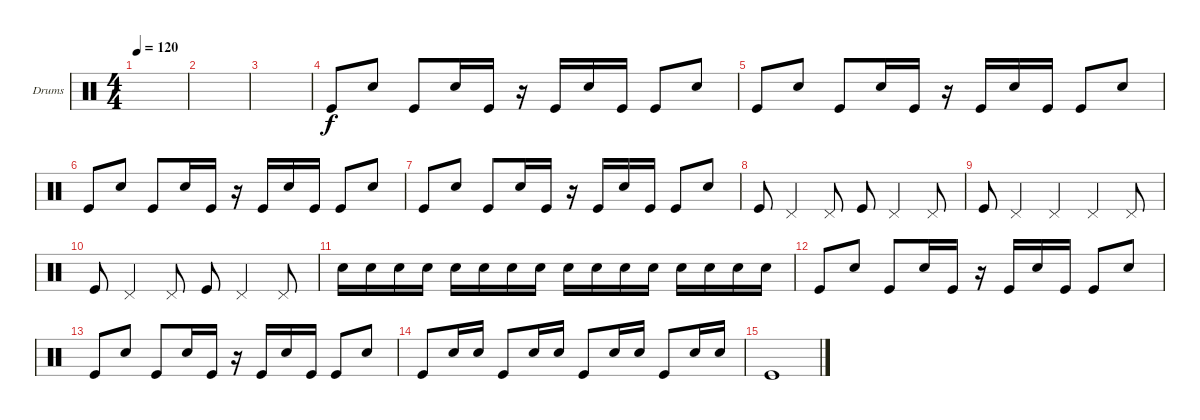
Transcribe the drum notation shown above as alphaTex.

\bracketExtendMode groupsimilarinstruments
\firstSystemTrackNameOrientation horizontal
\otherSystemsTrackNameOrientation horizontal
\track ("Drumkit" "Drums") {instrument percussion}
\staff {score}
\articulation defaults
\ts (4 4)
\tempo 120
\clef neutral
\ks c
|
|
|
"Kick (hit)".8 "Snare (hit) 2".8 "Kick (hit)".8 "Snare (hit) 2".16 "Kick (hit)".16 r.16 "Kick (hit)".16 "Snare (hit) 2".16 "Kick (hit)".16 "Kick (hit)".8 "Snare (hit) 2".8 |
"Kick (hit)".8 "Snare (hit) 2".8 "Kick (hit)".8 "Snare (hit) 2".16 "Kick (hit)".16 r.16 "Kick (hit)".16 "Snare (hit) 2".16 "Kick (hit)".16 "Kick (hit)".8 "Snare (hit) 2".8 |
"Kick (hit)".8 "Snare (hit) 2".8 "Kick (hit)".8 "Snare (hit) 2".16 "Kick (hit)".16 r.16 "Kick (hit)".16 "Snare (hit) 2".16 "Kick (hit)".16 "Kick (hit)".8 "Snare (hit) 2".8 |
"Kick (hit)".8 "Snare (hit) 2".8 "Kick (hit)".8 "Snare (hit) 2".16 "Kick (hit)".16 r.16 "Kick (hit)".16 "Snare (hit) 2".16 "Kick (hit)".16 "Kick (hit)".8 "Snare (hit) 2".8 |
"Kick (hit)".8 "Pedal Hi-Hat (hit)".4 "Pedal Hi-Hat (hit)".8 "Kick (hit)".8 "Pedal Hi-Hat (hit)".4 "Pedal Hi-Hat (hit)".8 |
"Kick (hit)".8 "Pedal Hi-Hat (hit)".4 "Pedal Hi-Hat (hit)".4 "Pedal Hi-Hat (hit)".4 "Pedal Hi-Hat (hit)".8 |
"Kick (hit)".8 "Pedal Hi-Hat (hit)".4 "Pedal Hi-Hat (hit)".8 "Kick (hit)".8 "Pedal Hi-Hat (hit)".4 "Pedal Hi-Hat (hit)".8 |
"Snare (hit) 2".16 "Snare (hit) 2".16 "Snare (hit) 2".16 "Snare (hit) 2".16 "Snare (hit) 2".16 "Snare (hit) 2".16 "Snare (hit) 2".16 "Snare (hit) 2".16 "Snare (hit) 2".16 "Snare (hit) 2".16 "Snare (hit) 2".16 "Snare (hit) 2".16 "Snare (hit) 2".16 "Snare (hit) 2".16 "Snare (hit) 2".16 "Snare (hit) 2".16 |
"Kick (hit)".8 "Snare (hit) 2".8 "Kick (hit)".8 "Snare (hit) 2".16 "Kick (hit)".16 r.16 "Kick (hit)".16 "Snare (hit) 2".16 "Kick (hit)".16 "Kick (hit)".8 "Snare (hit) 2".8 |
"Kick (hit)".8 "Snare (hit) 2".8 "Kick (hit)".8 "Snare (hit) 2".16 "Kick (hit)".16 r.16 "Kick (hit)".16 "Snare (hit) 2".16 "Kick (hit)".16 "Kick (hit)".8 "Snare (hit) 2".8 |
"Kick (hit)".8 "Snare (hit) 2".16 "Snare (hit) 2".16 "Kick (hit)".8 "Snare (hit) 2".16 "Snare (hit) 2".16 "Kick (hit)".8 "Snare (hit) 2".16 "Snare (hit) 2".16 "Kick (hit)".8 "Snare (hit) 2".16 "Snare (hit) 2".16 |
"Kick (hit)".1
